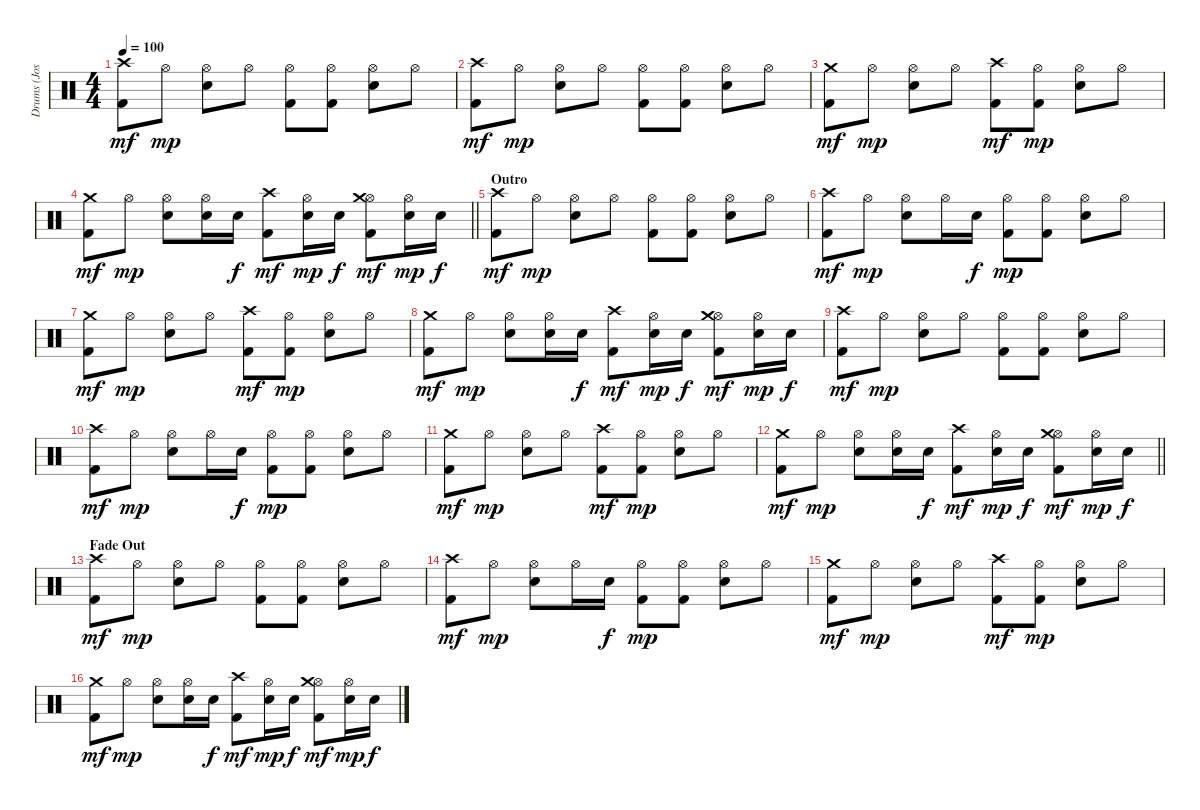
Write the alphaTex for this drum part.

\track ("Drums (Josh Freese)" "Drums (Jos") {instrument percussion}
\staff {score}
\articulation defaults
\ts (4 4)
\tempo 100
\clef neutral
\ks c
("Crash high (hit)" "Kick (hit) 2").8{dy mf} "Hi-Hat (open)".8{dy mp} ("Hi-Hat (open)" "Electric Snare (hit)").8 "Hi-Hat (open)".8 ("Hi-Hat (open)" "Kick (hit) 2").8 ("Hi-Hat (open)" "Kick (hit) 2").8 ("Hi-Hat (open)" "Electric Snare (hit)").8 "Hi-Hat (open)".8 |
("Crash high (hit)" "Kick (hit) 2").8{dy mf} "Hi-Hat (open)".8{dy mp} ("Hi-Hat (open)" "Electric Snare (hit)").8 "Hi-Hat (open)".8 ("Hi-Hat (open)" "Kick (hit) 2").8 ("Hi-Hat (open)" "Kick (hit) 2").8 ("Hi-Hat (open)" "Electric Snare (hit)").8 "Hi-Hat (open)".8 |
("Crash medium (hit)" "Kick (hit) 2").8{dy mf} "Hi-Hat (open)".8{dy mp} ("Hi-Hat (open)" "Electric Snare (hit)").8 "Hi-Hat (open)".8 ("Crash high (hit)" "Kick (hit) 2").8{dy mf} ("Hi-Hat (open)" "Kick (hit) 2").8{dy mp} ("Hi-Hat (open)" "Electric Snare (hit)").8 "Hi-Hat (open)".8 |
\barLineRight lightlight
("Crash medium (hit)" "Kick (hit) 2").8{dy mf} "Hi-Hat (open)".8{dy mp} ("Hi-Hat (open)" "Electric Snare (hit)").8 ("Hi-Hat (open)" "Electric Snare (hit)").16 "Electric Snare (hit)".16{dy f} ("Crash high (hit)" "Kick (hit) 2").8{dy mf} ("Hi-Hat (open)" "Electric Snare (hit)").16{dy mp} "Electric Snare (hit)".16{dy f} ("Hi-Hat (open)" "Crash medium (hit)" "Kick (hit) 2").8{dy mf} ("Hi-Hat (open)" "Electric Snare (hit)").16{dy mp} "Electric Snare (hit)".16{dy f} |
\section ("" "Outro")
("Crash high (hit)" "Kick (hit) 2").8{dy mf} "Hi-Hat (open)".8{dy mp} ("Hi-Hat (open)" "Electric Snare (hit)").8 "Hi-Hat (open)".8 ("Hi-Hat (open)" "Kick (hit) 2").8 ("Hi-Hat (open)" "Kick (hit) 2").8 ("Hi-Hat (open)" "Electric Snare (hit)").8 "Hi-Hat (open)".8 |
("Crash high (hit)" "Kick (hit) 2").8{dy mf} "Hi-Hat (open)".8{dy mp} ("Hi-Hat (open)" "Electric Snare (hit)").8 "Hi-Hat (open)".16 "Electric Snare (hit)".16{dy f} ("Hi-Hat (open)" "Kick (hit) 2").8{dy mp} ("Hi-Hat (open)" "Kick (hit) 2").8 ("Hi-Hat (open)" "Electric Snare (hit)").8 "Hi-Hat (open)".8 |
("Crash medium (hit)" "Kick (hit) 2").8{dy mf} "Hi-Hat (open)".8{dy mp} ("Hi-Hat (open)" "Electric Snare (hit)").8 "Hi-Hat (open)".8 ("Crash high (hit)" "Kick (hit) 2").8{dy mf} ("Hi-Hat (open)" "Kick (hit) 2").8{dy mp} ("Hi-Hat (open)" "Electric Snare (hit)").8 "Hi-Hat (open)".8 |
("Crash medium (hit)" "Kick (hit) 2").8{dy mf} "Hi-Hat (open)".8{dy mp} ("Hi-Hat (open)" "Electric Snare (hit)").8 ("Hi-Hat (open)" "Electric Snare (hit)").16 "Electric Snare (hit)".16{dy f} ("Crash high (hit)" "Kick (hit) 2").8{dy mf} ("Hi-Hat (open)" "Electric Snare (hit)").16{dy mp} "Electric Snare (hit)".16{dy f} ("Hi-Hat (open)" "Crash medium (hit)" "Kick (hit) 2").8{dy mf} ("Hi-Hat (open)" "Electric Snare (hit)").16{dy mp} "Electric Snare (hit)".16{dy f} |
("Crash high (hit)" "Kick (hit) 2").8{dy mf} "Hi-Hat (open)".8{dy mp} ("Hi-Hat (open)" "Electric Snare (hit)").8 "Hi-Hat (open)".8 ("Hi-Hat (open)" "Kick (hit) 2").8 ("Hi-Hat (open)" "Kick (hit) 2").8 ("Hi-Hat (open)" "Electric Snare (hit)").8 "Hi-Hat (open)".8 |
("Crash high (hit)" "Kick (hit) 2").8{dy mf} "Hi-Hat (open)".8{dy mp} ("Hi-Hat (open)" "Electric Snare (hit)").8 "Hi-Hat (open)".16 "Electric Snare (hit)".16{dy f} ("Hi-Hat (open)" "Kick (hit) 2").8{dy mp} ("Hi-Hat (open)" "Kick (hit) 2").8 ("Hi-Hat (open)" "Electric Snare (hit)").8 "Hi-Hat (open)".8 |
("Crash medium (hit)" "Kick (hit) 2").8{dy mf} "Hi-Hat (open)".8{dy mp} ("Hi-Hat (open)" "Electric Snare (hit)").8 "Hi-Hat (open)".8 ("Crash high (hit)" "Kick (hit) 2").8{dy mf} ("Hi-Hat (open)" "Kick (hit) 2").8{dy mp} ("Hi-Hat (open)" "Electric Snare (hit)").8 "Hi-Hat (open)".8 |
\barLineRight lightlight
("Crash medium (hit)" "Kick (hit) 2").8{dy mf} "Hi-Hat (open)".8{dy mp} ("Hi-Hat (open)" "Electric Snare (hit)").8 ("Hi-Hat (open)" "Electric Snare (hit)").16 "Electric Snare (hit)".16{dy f} ("Crash high (hit)" "Kick (hit) 2").8{dy mf} ("Hi-Hat (open)" "Electric Snare (hit)").16{dy mp} "Electric Snare (hit)".16{dy f} ("Hi-Hat (open)" "Crash medium (hit)" "Kick (hit) 2").8{dy mf} ("Hi-Hat (open)" "Electric Snare (hit)").16{dy mp} "Electric Snare (hit)".16{dy f} |
\section ("" "Fade Out")
("Crash high (hit)" "Kick (hit) 2").8{dy mf} "Hi-Hat (open)".8{dy mp} ("Hi-Hat (open)" "Electric Snare (hit)").8 "Hi-Hat (open)".8 ("Hi-Hat (open)" "Kick (hit) 2").8 ("Hi-Hat (open)" "Kick (hit) 2").8 ("Hi-Hat (open)" "Electric Snare (hit)").8 "Hi-Hat (open)".8 |
("Crash high (hit)" "Kick (hit) 2").8{dy mf} "Hi-Hat (open)".8{dy mp} ("Hi-Hat (open)" "Electric Snare (hit)").8 "Hi-Hat (open)".16 "Electric Snare (hit)".16{dy f} ("Hi-Hat (open)" "Kick (hit) 2").8{dy mp} ("Hi-Hat (open)" "Kick (hit) 2").8 ("Hi-Hat (open)" "Electric Snare (hit)").8 "Hi-Hat (open)".8 |
("Crash medium (hit)" "Kick (hit) 2").8{dy mf} "Hi-Hat (open)".8{dy mp} ("Hi-Hat (open)" "Electric Snare (hit)").8 "Hi-Hat (open)".8 ("Crash high (hit)" "Kick (hit) 2").8{dy mf} ("Hi-Hat (open)" "Kick (hit) 2").8{dy mp} ("Hi-Hat (open)" "Electric Snare (hit)").8 "Hi-Hat (open)".8 |
("Crash medium (hit)" "Kick (hit) 2").8{dy mf} "Hi-Hat (open)".8{dy mp} ("Hi-Hat (open)" "Electric Snare (hit)").8 ("Hi-Hat (open)" "Electric Snare (hit)").16 "Electric Snare (hit)".16{dy f} ("Crash high (hit)" "Kick (hit) 2").8{dy mf} ("Hi-Hat (open)" "Electric Snare (hit)").16{dy mp} "Electric Snare (hit)".16{dy f} ("Hi-Hat (open)" "Crash medium (hit)" "Kick (hit) 2").8{dy mf} ("Hi-Hat (open)" "Electric Snare (hit)").16{dy mp} "Electric Snare (hit)".16{dy f}
